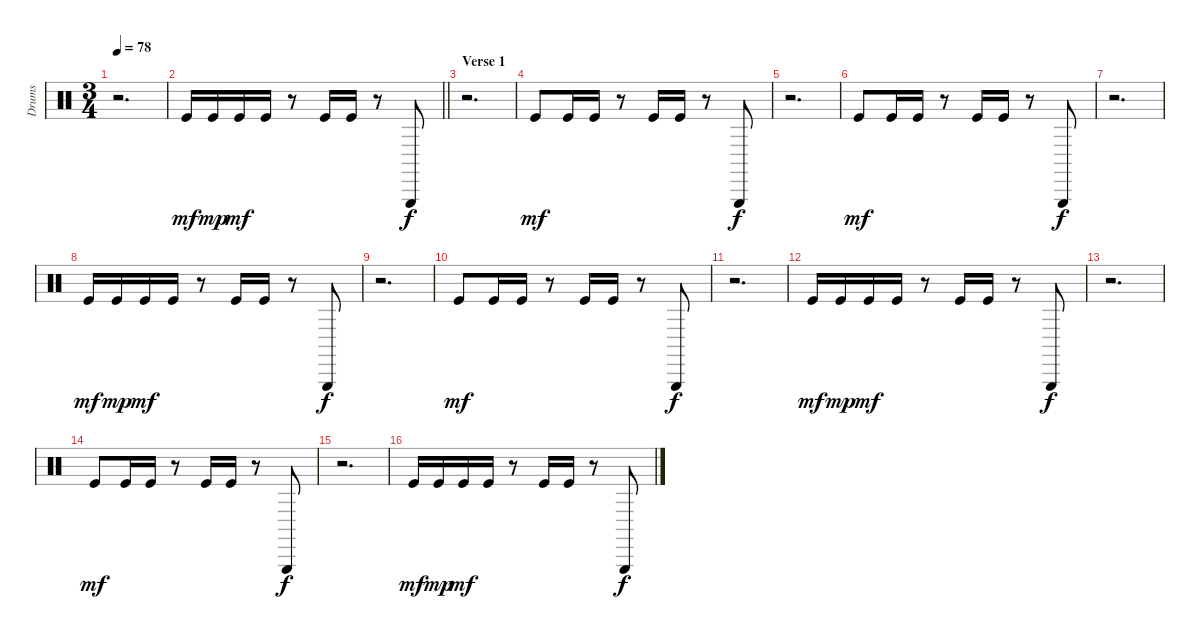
\track ("Drums" "Drums") {instrument percussion}
\staff {score}
\articulation defaults
\ts (3 4)
\tempo 78
\clef neutral
\ks c
r.2{d dy f} |
\barLineRight lightlight "Kick (hit)".16{dy mf} "Kick (hit)".16{dy mp} "Kick (hit)".16{dy mf} "Kick (hit)".16
r.8 "Kick (hit)".16 "Kick (hit)".16 r.8 "Triangle (hit)".8{dy f} |
\section ("" "Verse 1")
r.2{d} |
"Kick (hit)".8{dy mf} "Kick (hit)".16 "Kick (hit)".16 r.8 "Kick (hit)".16 "Kick (hit)".16 r.8 "Triangle (hit)".8{dy f} |
r.2{d} |
"Kick (hit)".8{dy mf} "Kick (hit)".16 "Kick (hit)".16 r.8 "Kick (hit)".16 "Kick (hit)".16 r.8 "Triangle (hit)".8{dy f} |
r.2{d} |
"Kick (hit)".16{dy mf} "Kick (hit)".16{dy mp} "Kick (hit)".16{dy mf} "Kick (hit)".16 r.8 "Kick (hit)".16 "Kick (hit)".16 r.8 "Triangle (hit)".8{dy f} |
r.2{d} |
"Kick (hit)".8{dy mf} "Kick (hit)".16 "Kick (hit)".16 r.8 "Kick (hit)".16 "Kick (hit)".16 r.8 "Triangle (hit)".8{dy f} |
r.2{d} |
"Kick (hit)".16{dy mf} "Kick (hit)".16{dy mp} "Kick (hit)".16{dy mf} "Kick (hit)".16 r.8 "Kick (hit)".16 "Kick (hit)".16 r.8 "Triangle (hit)".8{dy f} |
r.2{d} |
"Kick (hit)".8{dy mf} "Kick (hit)".16 "Kick (hit)".16 r.8 "Kick (hit)".16 "Kick (hit)".16 r.8 "Triangle (hit)".8{dy f} |
r.2{d} |
"Kick (hit)".16{dy mf} "Kick (hit)".16{dy mp} "Kick (hit)".16{dy mf} "Kick (hit)".16 r.8 "Kick (hit)".16 "Kick (hit)".16 r.8 "Triangle (hit)".8{dy f}
